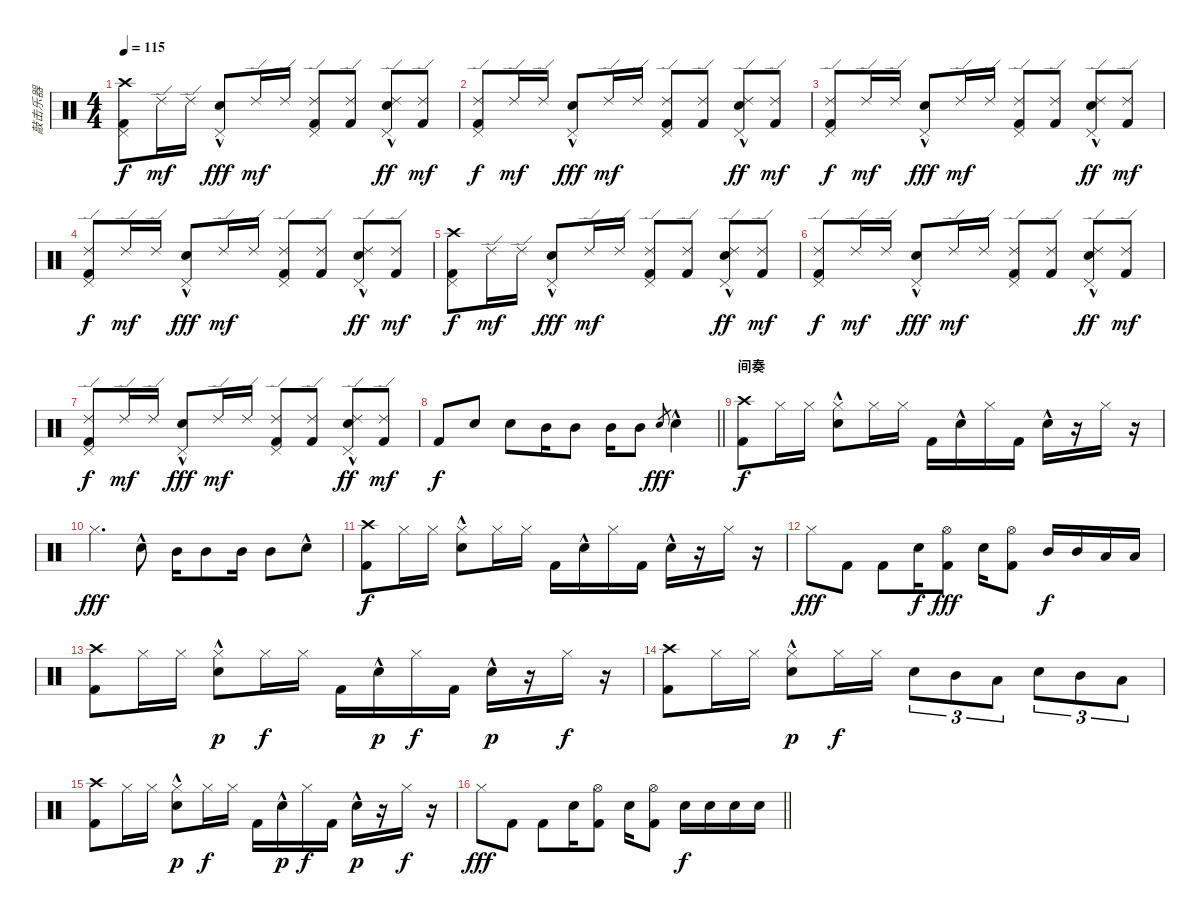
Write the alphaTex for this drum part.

\track ("敲击乐器" "敲击乐器") {instrument percussion}
\staff {score}
\articulation defaults
\ts (4 4)
\tempo 115
\clef neutral
\ks c
("Crash high (hit)" "Pedal Hi-Hat (hit)" "Kick (hit) 2").8{dy f} "Ride (edge) 2".16{dy mf} "Ride (edge) 2".16 ("Electric Snare (hit)"{hac} "Pedal Hi-Hat (hit)").8{dy fff} "Ride (edge) 2".16{dy mf} "Ride (edge) 2".16 ("Ride (edge) 2" "Pedal Hi-Hat (hit)" "Kick (hit) 2").8 ("Ride (edge) 2" "Kick (hit) 2").8 ("Ride (edge) 2" "Electric Snare (hit)"{hac} "Pedal Hi-Hat (hit)").8{dy ff} ("Ride (edge) 2" "Kick (hit) 2").8{dy mf} |
("Ride (edge) 2" "Pedal Hi-Hat (hit)" "Kick (hit) 2").8{dy f} "Ride (edge) 2".16{dy mf} "Ride (edge) 2".16 ("Electric Snare (hit)"{hac} "Pedal Hi-Hat (hit)").8{dy fff} "Ride (edge) 2".16{dy mf} "Ride (edge) 2".16 ("Ride (edge) 2" "Pedal Hi-Hat (hit)" "Kick (hit) 2").8 ("Ride (edge) 2" "Kick (hit) 2").8 ("Ride (edge) 2" "Electric Snare (hit)"{hac} "Pedal Hi-Hat (hit)").8{dy ff} ("Ride (edge) 2" "Kick (hit) 2").8{dy mf} |
("Ride (edge) 2" "Pedal Hi-Hat (hit)" "Kick (hit) 2").8{dy f} "Ride (edge) 2".16{dy mf} "Ride (edge) 2".16 ("Electric Snare (hit)"{hac} "Pedal Hi-Hat (hit)").8{dy fff} "Ride (edge) 2".16{dy mf} "Ride (edge) 2".16 ("Ride (edge) 2" "Pedal Hi-Hat (hit)" "Kick (hit) 2").8 ("Ride (edge) 2" "Kick (hit) 2").8 ("Ride (edge) 2" "Electric Snare (hit)"{hac} "Pedal Hi-Hat (hit)").8{dy ff} ("Ride (edge) 2" "Kick (hit) 2").8{dy mf} |
("Ride (edge) 2" "Pedal Hi-Hat (hit)" "Kick (hit) 2").8{dy f} "Ride (edge) 2".16{dy mf} "Ride (edge) 2".16 ("Electric Snare (hit)"{hac} "Pedal Hi-Hat (hit)").8{dy fff} "Ride (edge) 2".16{dy mf} "Ride (edge) 2".16 ("Ride (edge) 2" "Pedal Hi-Hat (hit)" "Kick (hit) 2").8 ("Ride (edge) 2" "Kick (hit) 2").8 ("Ride (edge) 2" "Electric Snare (hit)"{hac} "Pedal Hi-Hat (hit)").8{dy ff} ("Ride (edge) 2" "Kick (hit) 2").8{dy mf} |
("Crash high (hit)" "Pedal Hi-Hat (hit)" "Kick (hit) 2").8{dy f} "Ride (edge) 2".16{dy mf} "Ride (edge) 2".16 ("Electric Snare (hit)"{hac} "Pedal Hi-Hat (hit)").8{dy fff} "Ride (edge) 2".16{dy mf} "Ride (edge) 2".16 ("Ride (edge) 2" "Pedal Hi-Hat (hit)" "Kick (hit) 2").8 ("Ride (edge) 2" "Kick (hit) 2").8 ("Ride (edge) 2" "Electric Snare (hit)"{hac} "Pedal Hi-Hat (hit)").8{dy ff} ("Ride (edge) 2" "Kick (hit) 2").8{dy mf} |
("Ride (edge) 2" "Pedal Hi-Hat (hit)" "Kick (hit) 2").8{dy f} "Ride (edge) 2".16{dy mf} "Ride (edge) 2".16 ("Electric Snare (hit)"{hac} "Pedal Hi-Hat (hit)").8{dy fff} "Ride (edge) 2".16{dy mf} "Ride (edge) 2".16 ("Ride (edge) 2" "Pedal Hi-Hat (hit)" "Kick (hit) 2").8 ("Ride (edge) 2" "Kick (hit) 2").8 ("Ride (edge) 2" "Electric Snare (hit)"{hac} "Pedal Hi-Hat (hit)").8{dy ff} ("Ride (edge) 2" "Kick (hit) 2").8{dy mf} |
("Ride (edge) 2" "Pedal Hi-Hat (hit)" "Kick (hit) 2").8{dy f} "Ride (edge) 2".16{dy mf} "Ride (edge) 2".16 ("Electric Snare (hit)"{hac} "Pedal Hi-Hat (hit)").8{dy fff} "Ride (edge) 2".16{dy mf} "Ride (edge) 2".16 ("Ride (edge) 2" "Pedal Hi-Hat (hit)" "Kick (hit) 2").8 ("Ride (edge) 2" "Kick (hit) 2").8 ("Ride (edge) 2" "Electric Snare (hit)"{hac} "Pedal Hi-Hat (hit)").8{dy ff} ("Ride (edge) 2" "Kick (hit) 2").8{dy mf} |
\barLineRight lightlight "Kick (hit) 2".8{dy f} "Snare (hit) 2".8 "Snare (hit) 2".8 "Mid Tom (hit)".16 "Mid Tom (hit)".8 "Mid Tom (hit)".16 "Mid Tom (hit)".8 "Electric Snare (hit)".8{gr dy fff} "Electric Snare (hit)"{hac}.4
|
\section ("" "间奏")
("Crash high (hit)" "Kick (hit) 2").8{dy f} "Hi-Hat (closed)".16 "Hi-Hat (closed)".16 ("Hi-Hat (closed)" "Electric Snare (hit)"{hac}).8 "Hi-Hat (closed)".16 "Hi-Hat (closed)".16 "Kick (hit) 2".16 "Electric Snare (hit)"{hac}.16 "Hi-Hat (closed)".16 "Kick (hit) 2".16 "Electric Snare (hit)"{hac}.16 r.16 "Hi-Hat (closed)".16 r.16 |
"Hi-Hat (closed)".4{d dy fff} "Electric Snare (hit)"{hac}.8 "Mid Tom (hit)".16 "Mid Tom (hit)".8 "Mid Tom (hit)".16 "Mid Tom (hit)".8 "Electric Snare (hit)"{hac}.8 |
("Crash high (hit)" "Kick (hit) 2").8{dy f} "Hi-Hat (closed)".16 "Hi-Hat (closed)".16 ("Hi-Hat (closed)" "Electric Snare (hit)"{hac}).8 "Hi-Hat (closed)".16 "Hi-Hat (closed)".16 "Kick (hit) 2".16 "Electric Snare (hit)"{hac}.16 "Hi-Hat (closed)".16 "Kick (hit) 2".16 "Electric Snare (hit)"{hac}.16 r.16 "Hi-Hat (closed)".16 r.16 |
"Hi-Hat (closed)".8{dy fff} "Kick (hit) 2".8 "Kick (hit) 2".8 "Electric Snare (hit)".16{dy f} ("Hi-Hat (open)" "Kick (hit) 2").8{dy fff} "Electric Snare (hit)".16 ("Hi-Hat (open)" "Kick (hit) 2").8 "Mid Tom (hit)".16{dy f} "Mid Tom (hit)".16 "Low Tom (hit)".16 "Low Tom (hit)".16 |
("Crash high (hit)" "Kick (hit) 2").8 "Hi-Hat (closed)".16 "Hi-Hat (closed)".16 ("Hi-Hat (closed)" "Electric Snare (hit)"{hac}).8{dy p} "Hi-Hat (closed)".16{dy f} "Hi-Hat (closed)".16 "Kick (hit) 2".16 "Electric Snare (hit)"{hac}.16{dy p} "Hi-Hat (closed)".16{dy f} "Kick (hit) 2".16 "Electric Snare (hit)"{hac}.16{dy p} r.16 "Hi-Hat (closed)".16{dy f} r.16 |
("Crash high (hit)" "Kick (hit) 2").8 "Hi-Hat (closed)".16 "Hi-Hat (closed)".16 ("Hi-Hat (closed)" "Electric Snare (hit)"{hac}).8{dy p} "Hi-Hat (closed)".16{dy f} "Hi-Hat (closed)".16 "Electric Snare (hit)".8{tu (3 2)} "Mid Tom (hit)".8{tu (3 2)} "Low Tom (hit)".8{tu (3 2)} "Electric Snare (hit)".8{tu (3 2)} "Mid Tom (hit)".8{tu (3 2)} "Low Tom (hit)".8{tu (3 2)} |
("Crash high (hit)" "Kick (hit) 2").8 "Hi-Hat (closed)".16 "Hi-Hat (closed)".16 ("Hi-Hat (closed)" "Electric Snare (hit)"{hac}).8{dy p} "Hi-Hat (closed)".16{dy f} "Hi-Hat (closed)".16 "Kick (hit) 2".16 "Electric Snare (hit)"{hac}.16{dy p} "Hi-Hat (closed)".16{dy f} "Kick (hit) 2".16 "Electric Snare (hit)"{hac}.16{dy p} r.16 "Hi-Hat (closed)".16{dy f} r.16 |
\barLineRight lightlight "Hi-Hat (closed)".8{dy fff} "Kick (hit) 2".8 "Kick (hit) 2".8 "Electric Snare (hit)".16
("Hi-Hat (open)" "Kick (hit) 2").8 "Electric Snare (hit)".16 ("Hi-Hat (open)" "Kick (hit) 2").8 "Snare (hit) 2".16{dy f} "Snare (hit) 2".16 "Snare (hit) 2".16 "Snare (hit) 2".16
